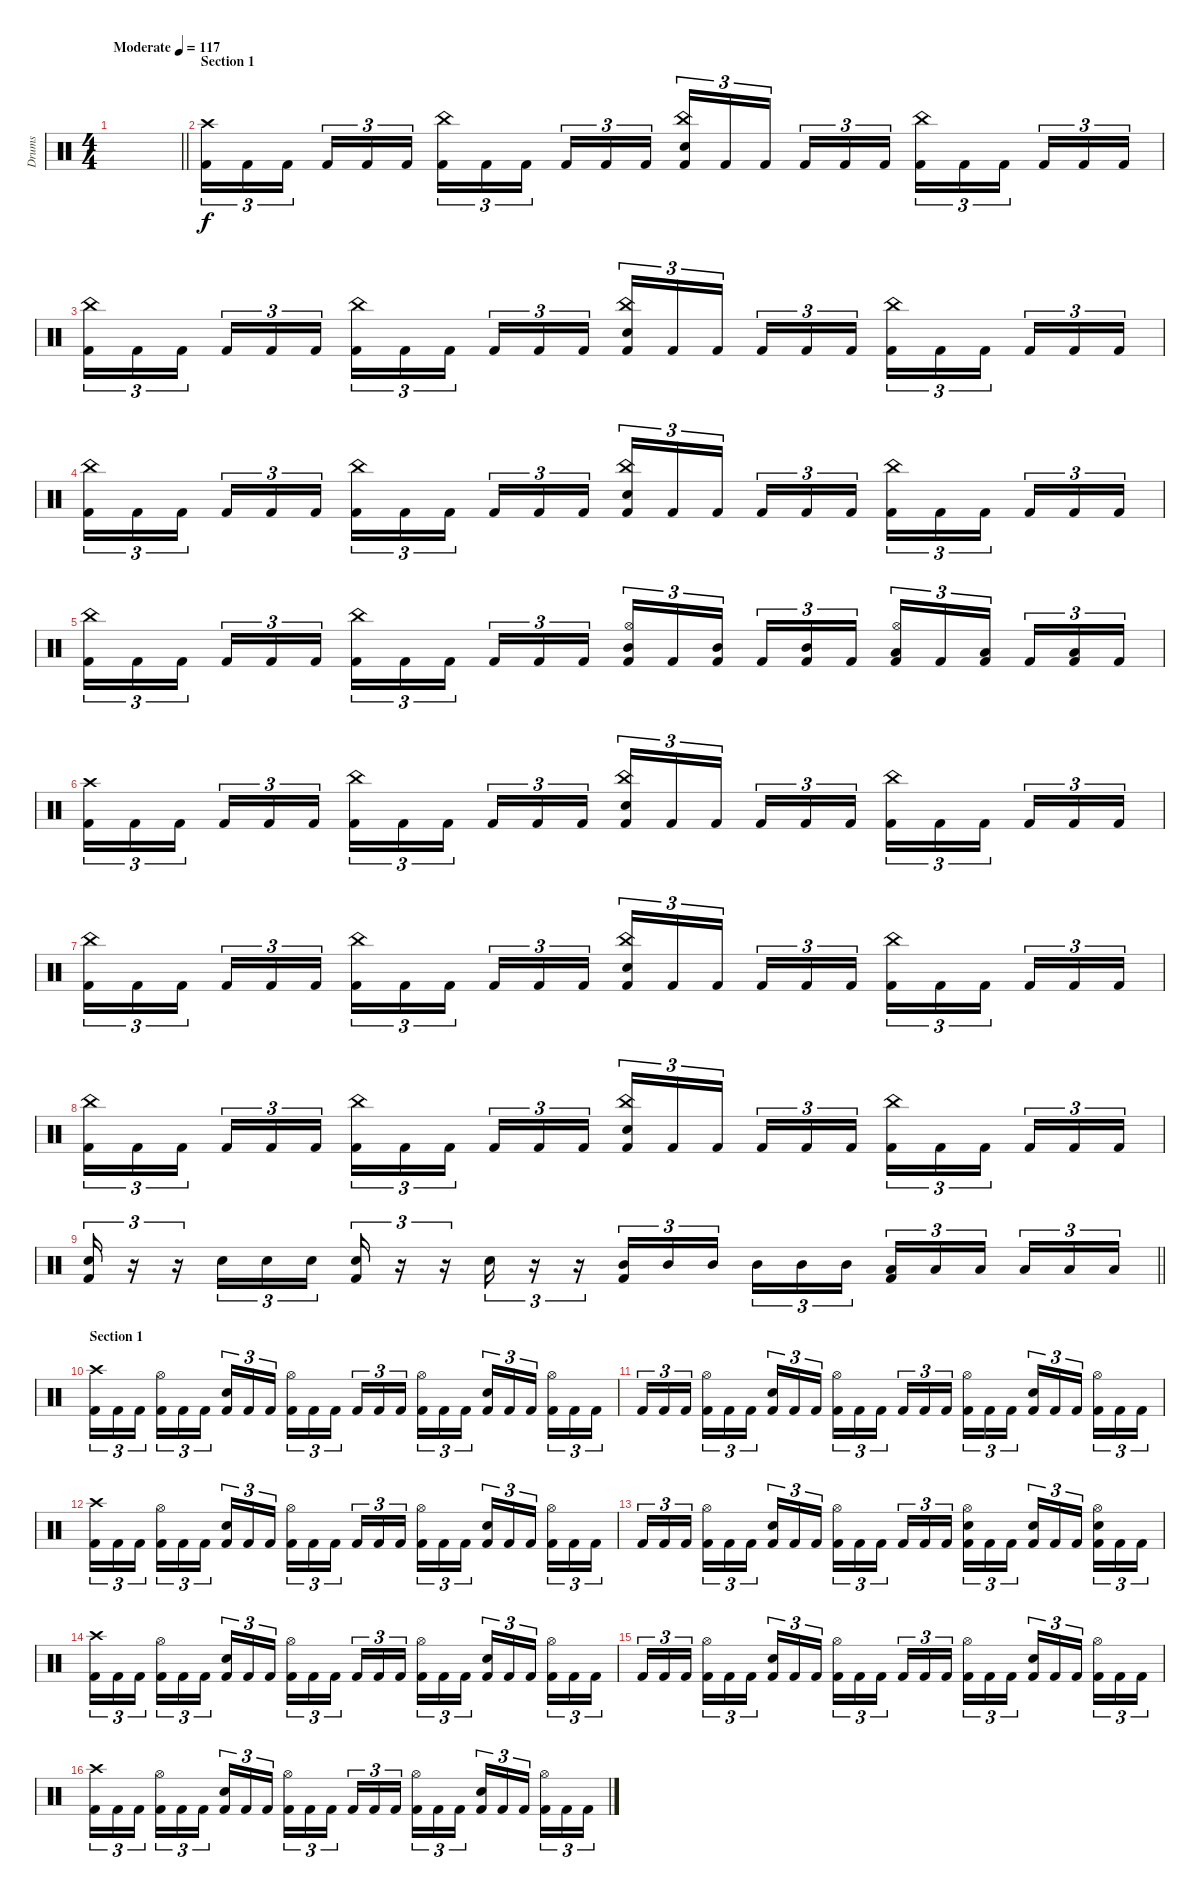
\track ("Drums" "Drums") {instrument percussion}
\staff {score}
\articulation defaults
\ts (4 4)
\tempo (117 "Moderate")
\clef neutral
\barLineRight lightlight
\ks c
|
\section ("" "Section 1")
("Crash high (hit)" "Kick (hit) 2").16{tu (3 2)} "Kick (hit) 2".16{tu (3 2)} "Kick (hit) 2".16{tu (3 2) beam splitsecondary} "Kick (hit) 2".16{tu (3 2)} "Kick (hit) 2".16{tu (3 2)} "Kick (hit) 2".16{tu (3 2)} ("China (hit)" "Kick (hit) 2").16{tu (3 2)} "Kick (hit) 2".16{tu (3 2)} "Kick (hit) 2".16{tu (3 2) beam splitsecondary} "Kick (hit) 2".16{tu (3 2)} "Kick (hit) 2".16{tu (3 2)} "Kick (hit) 2".16{tu (3 2)} ("China (hit)" "Snare (hit) 2" "Kick (hit) 2").16{tu (3 2)} "Kick (hit) 2".16{tu (3 2)} "Kick (hit) 2".16{tu (3 2) beam splitsecondary} "Kick (hit) 2".16{tu (3 2)} "Kick (hit) 2".16{tu (3 2)} "Kick (hit) 2".16{tu (3 2)} ("China (hit)" "Kick (hit) 2").16{tu (3 2)} "Kick (hit) 2".16{tu (3 2)} "Kick (hit) 2".16{tu (3 2) beam splitsecondary} "Kick (hit) 2".16{tu (3 2)} "Kick (hit) 2".16{tu (3 2)} "Kick (hit) 2".16{tu (3 2)} |
("China (hit)" "Kick (hit) 2").16{tu (3 2)} "Kick (hit) 2".16{tu (3 2)} "Kick (hit) 2".16{tu (3 2) beam splitsecondary} "Kick (hit) 2".16{tu (3 2)} "Kick (hit) 2".16{tu (3 2)} "Kick (hit) 2".16{tu (3 2)} ("China (hit)" "Kick (hit) 2").16{tu (3 2)} "Kick (hit) 2".16{tu (3 2)} "Kick (hit) 2".16{tu (3 2) beam splitsecondary} "Kick (hit) 2".16{tu (3 2)} "Kick (hit) 2".16{tu (3 2)} "Kick (hit) 2".16{tu (3 2)} ("China (hit)" "Snare (hit) 2" "Kick (hit) 2").16{tu (3 2)} "Kick (hit) 2".16{tu (3 2)} "Kick (hit) 2".16{tu (3 2) beam splitsecondary} "Kick (hit) 2".16{tu (3 2)} "Kick (hit) 2".16{tu (3 2)} "Kick (hit) 2".16{tu (3 2)} ("China (hit)" "Kick (hit) 2").16{tu (3 2)} "Kick (hit) 2".16{tu (3 2)} "Kick (hit) 2".16{tu (3 2) beam splitsecondary} "Kick (hit) 2".16{tu (3 2)} "Kick (hit) 2".16{tu (3 2)} "Kick (hit) 2".16{tu (3 2)} |
("China (hit)" "Kick (hit) 2").16{tu (3 2)} "Kick (hit) 2".16{tu (3 2)} "Kick (hit) 2".16{tu (3 2) beam splitsecondary} "Kick (hit) 2".16{tu (3 2)} "Kick (hit) 2".16{tu (3 2)} "Kick (hit) 2".16{tu (3 2)} ("China (hit)" "Kick (hit) 2").16{tu (3 2)} "Kick (hit) 2".16{tu (3 2)} "Kick (hit) 2".16{tu (3 2) beam splitsecondary} "Kick (hit) 2".16{tu (3 2)} "Kick (hit) 2".16{tu (3 2)} "Kick (hit) 2".16{tu (3 2)} ("China (hit)" "Snare (hit) 2" "Kick (hit) 2").16{tu (3 2)} "Kick (hit) 2".16{tu (3 2)} "Kick (hit) 2".16{tu (3 2) beam splitsecondary} "Kick (hit) 2".16{tu (3 2)} "Kick (hit) 2".16{tu (3 2)} "Kick (hit) 2".16{tu (3 2)} ("China (hit)" "Kick (hit) 2").16{tu (3 2)} "Kick (hit) 2".16{tu (3 2)} "Kick (hit) 2".16{tu (3 2) beam splitsecondary} "Kick (hit) 2".16{tu (3 2)} "Kick (hit) 2".16{tu (3 2)} "Kick (hit) 2".16{tu (3 2)} |
("China (hit)" "Kick (hit) 2").16{tu (3 2)} "Kick (hit) 2".16{tu (3 2)} "Kick (hit) 2".16{tu (3 2) beam splitsecondary} "Kick (hit) 2".16{tu (3 2)} "Kick (hit) 2".16{tu (3 2)} "Kick (hit) 2".16{tu (3 2)} ("China (hit)" "Kick (hit) 2").16{tu (3 2)} "Kick (hit) 2".16{tu (3 2)} "Kick (hit) 2".16{tu (3 2) beam splitsecondary} "Kick (hit) 2".16{tu (3 2)} "Kick (hit) 2".16{tu (3 2)} "Kick (hit) 2".16{tu (3 2)} ("Hi-Hat (open)" "Mid Tom (hit)" "Kick (hit) 2").16{tu (3 2)} "Kick (hit) 2".16{tu (3 2)} ("Mid Tom (hit)" "Kick (hit) 2").16{tu (3 2) beam splitsecondary} "Kick (hit) 2".16{tu (3 2)} ("Mid Tom (hit)" "Kick (hit) 2").16{tu (3 2)} "Kick (hit) 2".16{tu (3 2)} ("Hi-Hat (open)" "Low Tom (hit)" "Kick (hit) 2").16{tu (3 2)} "Kick (hit) 2".16{tu (3 2)} ("Low Tom (hit)" "Kick (hit) 2").16{tu (3 2) beam splitsecondary} "Kick (hit) 2".16{tu (3 2)} ("Low Tom (hit)" "Kick (hit) 2").16{tu (3 2)} "Kick (hit) 2".16{tu (3 2)} |
("Crash high (hit)" "Kick (hit) 2").16{tu (3 2)} "Kick (hit) 2".16{tu (3 2)} "Kick (hit) 2".16{tu (3 2) beam splitsecondary} "Kick (hit) 2".16{tu (3 2)} "Kick (hit) 2".16{tu (3 2)} "Kick (hit) 2".16{tu (3 2)} ("China (hit)" "Kick (hit) 2").16{tu (3 2)} "Kick (hit) 2".16{tu (3 2)} "Kick (hit) 2".16{tu (3 2) beam splitsecondary} "Kick (hit) 2".16{tu (3 2)} "Kick (hit) 2".16{tu (3 2)} "Kick (hit) 2".16{tu (3 2)} ("China (hit)" "Snare (hit) 2" "Kick (hit) 2").16{tu (3 2)} "Kick (hit) 2".16{tu (3 2)} "Kick (hit) 2".16{tu (3 2) beam splitsecondary} "Kick (hit) 2".16{tu (3 2)} "Kick (hit) 2".16{tu (3 2)} "Kick (hit) 2".16{tu (3 2)} ("China (hit)" "Kick (hit) 2").16{tu (3 2)} "Kick (hit) 2".16{tu (3 2)} "Kick (hit) 2".16{tu (3 2) beam splitsecondary} "Kick (hit) 2".16{tu (3 2)} "Kick (hit) 2".16{tu (3 2)} "Kick (hit) 2".16{tu (3 2)} |
("China (hit)" "Kick (hit) 2").16{tu (3 2)} "Kick (hit) 2".16{tu (3 2)} "Kick (hit) 2".16{tu (3 2) beam splitsecondary} "Kick (hit) 2".16{tu (3 2)} "Kick (hit) 2".16{tu (3 2)} "Kick (hit) 2".16{tu (3 2)} ("China (hit)" "Kick (hit) 2").16{tu (3 2)} "Kick (hit) 2".16{tu (3 2)} "Kick (hit) 2".16{tu (3 2) beam splitsecondary} "Kick (hit) 2".16{tu (3 2)} "Kick (hit) 2".16{tu (3 2)} "Kick (hit) 2".16{tu (3 2)} ("China (hit)" "Snare (hit) 2" "Kick (hit) 2").16{tu (3 2)} "Kick (hit) 2".16{tu (3 2)} "Kick (hit) 2".16{tu (3 2) beam splitsecondary} "Kick (hit) 2".16{tu (3 2)} "Kick (hit) 2".16{tu (3 2)} "Kick (hit) 2".16{tu (3 2)} ("China (hit)" "Kick (hit) 2").16{tu (3 2)} "Kick (hit) 2".16{tu (3 2)} "Kick (hit) 2".16{tu (3 2) beam splitsecondary} "Kick (hit) 2".16{tu (3 2)} "Kick (hit) 2".16{tu (3 2)} "Kick (hit) 2".16{tu (3 2)} |
("China (hit)" "Kick (hit) 2").16{tu (3 2)} "Kick (hit) 2".16{tu (3 2)} "Kick (hit) 2".16{tu (3 2) beam splitsecondary} "Kick (hit) 2".16{tu (3 2)} "Kick (hit) 2".16{tu (3 2)} "Kick (hit) 2".16{tu (3 2)} ("China (hit)" "Kick (hit) 2").16{tu (3 2)} "Kick (hit) 2".16{tu (3 2)} "Kick (hit) 2".16{tu (3 2) beam splitsecondary} "Kick (hit) 2".16{tu (3 2)} "Kick (hit) 2".16{tu (3 2)} "Kick (hit) 2".16{tu (3 2)} ("China (hit)" "Snare (hit) 2" "Kick (hit) 2").16{tu (3 2)} "Kick (hit) 2".16{tu (3 2)} "Kick (hit) 2".16{tu (3 2) beam splitsecondary} "Kick (hit) 2".16{tu (3 2)} "Kick (hit) 2".16{tu (3 2)} "Kick (hit) 2".16{tu (3 2)} ("China (hit)" "Kick (hit) 2").16{tu (3 2)} "Kick (hit) 2".16{tu (3 2)} "Kick (hit) 2".16{tu (3 2) beam splitsecondary} "Kick (hit) 2".16{tu (3 2)} "Kick (hit) 2".16{tu (3 2)} "Kick (hit) 2".16{tu (3 2)} |
\barLineRight lightlight
("Snare (hit) 2" "Kick (hit) 2").16{tu (3 2)} r.16{tu (3 2)} r.16{tu (3 2)} "Snare (hit) 2".16{tu (3 2)} "Snare (hit) 2".16{tu (3 2)} "Snare (hit) 2".16{tu (3 2)} ("Snare (hit) 2" "Kick (hit) 2").16{tu (3 2)} r.16{tu (3 2)} r.16{tu (3 2)} "Snare (hit) 2".16{tu (3 2)} r.16{tu (3 2)} r.16{tu (3 2)} ("Mid Tom (hit)" "Kick (hit) 2").16{tu (3 2)} "Mid Tom (hit)".16{tu (3 2)} "Mid Tom (hit)".16{tu (3 2) beam splitsecondary} "Mid Tom (hit)".16{tu (3 2)} "Mid Tom (hit)".16{tu (3 2)} "Mid Tom (hit)".16{tu (3 2)} ("Low Tom (hit)" "Kick (hit) 2").16{tu (3 2)} "Low Tom (hit)".16{tu (3 2)} "Low Tom (hit)".16{tu (3 2) beam splitsecondary} "Low Tom (hit)".16{tu (3 2)} "Low Tom (hit)".16{tu (3 2)} "Low Tom (hit)".16{tu (3 2)} |
\section ("" "Section 1")
("Crash high (hit)" "Kick (hit) 2").16{tu (3 2)} "Kick (hit) 2".16{tu (3 2)} "Kick (hit) 2".16{tu (3 2) beam splitsecondary} ("Hi-Hat (open)" "Kick (hit) 2").16{tu (3 2)} "Kick (hit) 2".16{tu (3 2)} "Kick (hit) 2".16{tu (3 2)} ("Snare (hit) 2" "Kick (hit) 2").16{tu (3 2)} "Kick (hit) 2".16{tu (3 2)} "Kick (hit) 2".16{tu (3 2) beam splitsecondary} ("Hi-Hat (open)" "Kick (hit) 2").16{tu (3 2)} "Kick (hit) 2".16{tu (3 2)} "Kick (hit) 2".16{tu (3 2)} "Kick (hit) 2".16{tu (3 2)} "Kick (hit) 2".16{tu (3 2)} "Kick (hit) 2".16{tu (3 2) beam splitsecondary} ("Hi-Hat (open)" "Kick (hit) 2").16{tu (3 2)} "Kick (hit) 2".16{tu (3 2)} "Kick (hit) 2".16{tu (3 2)} ("Snare (hit) 2" "Kick (hit) 2").16{tu (3 2)} "Kick (hit) 2".16{tu (3 2)} "Kick (hit) 2".16{tu (3 2) beam splitsecondary} ("Hi-Hat (open)" "Kick (hit) 2").16{tu (3 2)} "Kick (hit) 2".16{tu (3 2)} "Kick (hit) 2".16{tu (3 2)} |
"Kick (hit) 2".16{tu (3 2)} "Kick (hit) 2".16{tu (3 2)} "Kick (hit) 2".16{tu (3 2) beam splitsecondary} ("Hi-Hat (open)" "Kick (hit) 2").16{tu (3 2)} "Kick (hit) 2".16{tu (3 2)} "Kick (hit) 2".16{tu (3 2)} ("Snare (hit) 2" "Kick (hit) 2").16{tu (3 2)} "Kick (hit) 2".16{tu (3 2)} "Kick (hit) 2".16{tu (3 2) beam splitsecondary} ("Hi-Hat (open)" "Kick (hit) 2").16{tu (3 2)} "Kick (hit) 2".16{tu (3 2)} "Kick (hit) 2".16{tu (3 2)} "Kick (hit) 2".16{tu (3 2)} "Kick (hit) 2".16{tu (3 2)} "Kick (hit) 2".16{tu (3 2) beam splitsecondary} ("Hi-Hat (open)" "Kick (hit) 2").16{tu (3 2)} "Kick (hit) 2".16{tu (3 2)} "Kick (hit) 2".16{tu (3 2)} ("Snare (hit) 2" "Kick (hit) 2").16{tu (3 2)} "Kick (hit) 2".16{tu (3 2)} "Kick (hit) 2".16{tu (3 2) beam splitsecondary} ("Hi-Hat (open)" "Kick (hit) 2").16{tu (3 2)} "Kick (hit) 2".16{tu (3 2)} "Kick (hit) 2".16{tu (3 2)} |
("Crash high (hit)" "Kick (hit) 2").16{tu (3 2)} "Kick (hit) 2".16{tu (3 2)} "Kick (hit) 2".16{tu (3 2) beam splitsecondary} ("Hi-Hat (open)" "Kick (hit) 2").16{tu (3 2)} "Kick (hit) 2".16{tu (3 2)} "Kick (hit) 2".16{tu (3 2)} ("Snare (hit) 2" "Kick (hit) 2").16{tu (3 2)} "Kick (hit) 2".16{tu (3 2)} "Kick (hit) 2".16{tu (3 2) beam splitsecondary} ("Hi-Hat (open)" "Kick (hit) 2").16{tu (3 2)} "Kick (hit) 2".16{tu (3 2)} "Kick (hit) 2".16{tu (3 2)} "Kick (hit) 2".16{tu (3 2)} "Kick (hit) 2".16{tu (3 2)} "Kick (hit) 2".16{tu (3 2) beam splitsecondary} ("Hi-Hat (open)" "Kick (hit) 2").16{tu (3 2)} "Kick (hit) 2".16{tu (3 2)} "Kick (hit) 2".16{tu (3 2)} ("Snare (hit) 2" "Kick (hit) 2").16{tu (3 2)} "Kick (hit) 2".16{tu (3 2)} "Kick (hit) 2".16{tu (3 2) beam splitsecondary} ("Hi-Hat (open)" "Kick (hit) 2").16{tu (3 2)} "Kick (hit) 2".16{tu (3 2)} "Kick (hit) 2".16{tu (3 2)} |
"Kick (hit) 2".16{tu (3 2)} "Kick (hit) 2".16{tu (3 2)} "Kick (hit) 2".16{tu (3 2) beam splitsecondary} ("Hi-Hat (open)" "Kick (hit) 2").16{tu (3 2)} "Kick (hit) 2".16{tu (3 2)} "Kick (hit) 2".16{tu (3 2)} ("Snare (hit) 2" "Kick (hit) 2").16{tu (3 2)} "Kick (hit) 2".16{tu (3 2)} "Kick (hit) 2".16{tu (3 2) beam splitsecondary} ("Hi-Hat (open)" "Kick (hit) 2").16{tu (3 2)} "Kick (hit) 2".16{tu (3 2)} "Kick (hit) 2".16{tu (3 2)} "Kick (hit) 2".16{tu (3 2)} "Kick (hit) 2".16{tu (3 2)} "Kick (hit) 2".16{tu (3 2) beam splitsecondary} ("Hi-Hat (open)" "Snare (hit) 2" "Kick (hit) 2").16{tu (3 2)} "Kick (hit) 2".16{tu (3 2)} "Kick (hit) 2".16{tu (3 2)} ("Snare (hit) 2" "Kick (hit) 2").16{tu (3 2)} "Kick (hit) 2".16{tu (3 2)} "Kick (hit) 2".16{tu (3 2) beam splitsecondary} ("Hi-Hat (open)" "Snare (hit) 2" "Kick (hit) 2").16{tu (3 2)} "Kick (hit) 2".16{tu (3 2)} "Kick (hit) 2".16{tu (3 2)} |
("Crash high (hit)" "Kick (hit) 2").16{tu (3 2)} "Kick (hit) 2".16{tu (3 2)} "Kick (hit) 2".16{tu (3 2) beam splitsecondary} ("Hi-Hat (open)" "Kick (hit) 2").16{tu (3 2)} "Kick (hit) 2".16{tu (3 2)} "Kick (hit) 2".16{tu (3 2)} ("Snare (hit) 2" "Kick (hit) 2").16{tu (3 2)} "Kick (hit) 2".16{tu (3 2)} "Kick (hit) 2".16{tu (3 2) beam splitsecondary} ("Hi-Hat (open)" "Kick (hit) 2").16{tu (3 2)} "Kick (hit) 2".16{tu (3 2)} "Kick (hit) 2".16{tu (3 2)} "Kick (hit) 2".16{tu (3 2)} "Kick (hit) 2".16{tu (3 2)} "Kick (hit) 2".16{tu (3 2) beam splitsecondary} ("Hi-Hat (open)" "Kick (hit) 2").16{tu (3 2)} "Kick (hit) 2".16{tu (3 2)} "Kick (hit) 2".16{tu (3 2)} ("Snare (hit) 2" "Kick (hit) 2").16{tu (3 2)} "Kick (hit) 2".16{tu (3 2)} "Kick (hit) 2".16{tu (3 2) beam splitsecondary} ("Hi-Hat (open)" "Kick (hit) 2").16{tu (3 2)} "Kick (hit) 2".16{tu (3 2)} "Kick (hit) 2".16{tu (3 2)} |
"Kick (hit) 2".16{tu (3 2)} "Kick (hit) 2".16{tu (3 2)} "Kick (hit) 2".16{tu (3 2) beam splitsecondary} ("Hi-Hat (open)" "Kick (hit) 2").16{tu (3 2)} "Kick (hit) 2".16{tu (3 2)} "Kick (hit) 2".16{tu (3 2)} ("Snare (hit) 2" "Kick (hit) 2").16{tu (3 2)} "Kick (hit) 2".16{tu (3 2)} "Kick (hit) 2".16{tu (3 2) beam splitsecondary} ("Hi-Hat (open)" "Kick (hit) 2").16{tu (3 2)} "Kick (hit) 2".16{tu (3 2)} "Kick (hit) 2".16{tu (3 2)} "Kick (hit) 2".16{tu (3 2)} "Kick (hit) 2".16{tu (3 2)} "Kick (hit) 2".16{tu (3 2) beam splitsecondary} ("Hi-Hat (open)" "Kick (hit) 2").16{tu (3 2)} "Kick (hit) 2".16{tu (3 2)} "Kick (hit) 2".16{tu (3 2)} ("Snare (hit) 2" "Kick (hit) 2").16{tu (3 2)} "Kick (hit) 2".16{tu (3 2)} "Kick (hit) 2".16{tu (3 2) beam splitsecondary} ("Hi-Hat (open)" "Kick (hit) 2").16{tu (3 2)} "Kick (hit) 2".16{tu (3 2)} "Kick (hit) 2".16{tu (3 2)} |
("Crash high (hit)" "Kick (hit) 2").16{tu (3 2)} "Kick (hit) 2".16{tu (3 2)} "Kick (hit) 2".16{tu (3 2) beam splitsecondary} ("Hi-Hat (open)" "Kick (hit) 2").16{tu (3 2)} "Kick (hit) 2".16{tu (3 2)} "Kick (hit) 2".16{tu (3 2)} ("Snare (hit) 2" "Kick (hit) 2").16{tu (3 2)} "Kick (hit) 2".16{tu (3 2)} "Kick (hit) 2".16{tu (3 2) beam splitsecondary} ("Hi-Hat (open)" "Kick (hit) 2").16{tu (3 2)} "Kick (hit) 2".16{tu (3 2)} "Kick (hit) 2".16{tu (3 2)} "Kick (hit) 2".16{tu (3 2)} "Kick (hit) 2".16{tu (3 2)} "Kick (hit) 2".16{tu (3 2) beam splitsecondary} ("Hi-Hat (open)" "Kick (hit) 2").16{tu (3 2)} "Kick (hit) 2".16{tu (3 2)} "Kick (hit) 2".16{tu (3 2)} ("Snare (hit) 2" "Kick (hit) 2").16{tu (3 2)} "Kick (hit) 2".16{tu (3 2)} "Kick (hit) 2".16{tu (3 2) beam splitsecondary} ("Hi-Hat (open)" "Kick (hit) 2").16{tu (3 2)} "Kick (hit) 2".16{tu (3 2)} "Kick (hit) 2".16{tu (3 2)}
